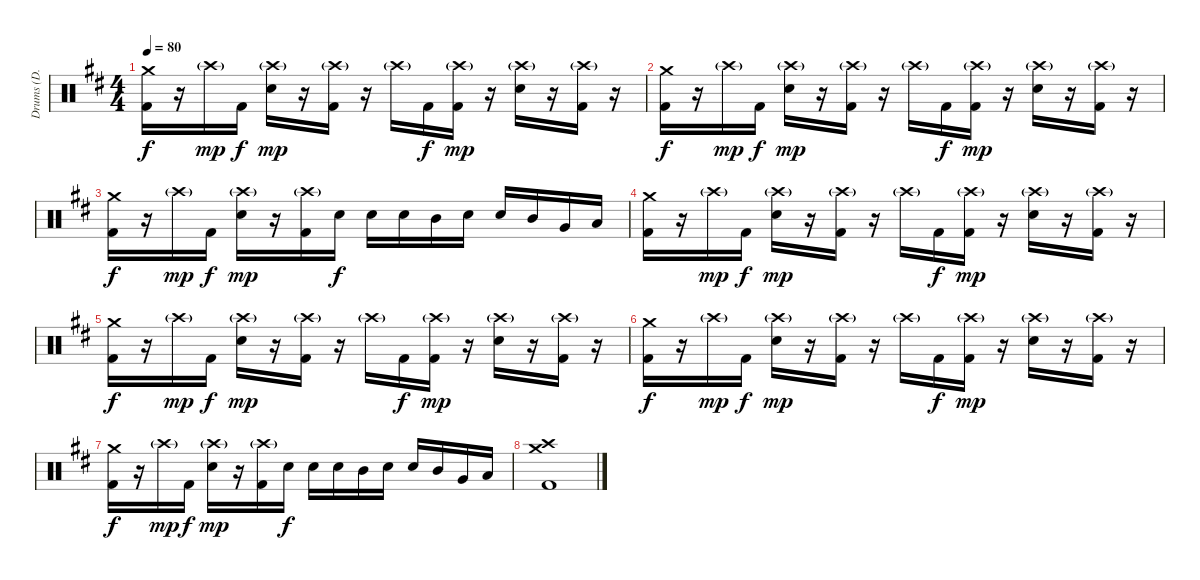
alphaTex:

\track ("Drums (D. Adair)" "Drums (D. ") {instrument percussion}
\staff {score}
\articulation defaults
\ts (4 4)
\tempo 80
\clef neutral
\ks d
("Crash medium (hit)" "Kick (hit) 2").16{dy f} r.16 "Crash high (hit)"{g}.16{dy mp} "Kick (hit) 2".16{dy f} ("Crash high (hit)"{g} "Snare (hit) 2").16{dy mp} r.16 ("Crash high (hit)"{g} "Kick (hit) 2").16 r.16 "Crash high (hit)"{g}.16 "Kick (hit) 2".16{dy f} ("Crash high (hit)"{g} "Kick (hit) 2").16{dy mp} r.16 ("Crash high (hit)"{g} "Snare (hit) 2").16 r.16 ("Crash high (hit)"{g} "Kick (hit) 2").16 r.16 |
("Crash medium (hit)" "Kick (hit) 2").16{dy f} r.16 "Crash high (hit)"{g}.16{dy mp} "Kick (hit) 2".16{dy f} ("Crash high (hit)"{g} "Snare (hit) 2").16{dy mp} r.16 ("Crash high (hit)"{g} "Kick (hit) 2").16 r.16 "Crash high (hit)"{g}.16 "Kick (hit) 2".16{dy f} ("Crash high (hit)"{g} "Kick (hit) 2").16{dy mp} r.16 ("Crash high (hit)"{g} "Snare (hit) 2").16 r.16 ("Crash high (hit)"{g} "Kick (hit) 2").16 r.16 |
("Crash medium (hit)" "Kick (hit) 2").16{dy f} r.16 "Crash high (hit)"{g}.16{dy mp} "Kick (hit) 2".16{dy f} ("Crash high (hit)"{g} "Snare (hit) 2").16{dy mp} r.16 ("Crash high (hit)"{g} "Kick (hit) 2").16 "Snare (hit) 2".16{dy f} "Snare (hit) 2".16 "Snare (hit) 2".16 "Mid Tom (hit)".16 "Snare (hit) 2".16 "Snare (hit) 2".16 "Mid Tom (hit)".16 "Very Low Tom (hit)".16 "Low Floor Tom (hit)".16 |
("Crash medium (hit)" "Kick (hit) 2").16 r.16 "Crash high (hit)"{g}.16{dy mp} "Kick (hit) 2".16{dy f} ("Crash high (hit)"{g} "Snare (hit) 2").16{dy mp} r.16 ("Crash high (hit)"{g} "Kick (hit) 2").16 r.16 "Crash high (hit)"{g}.16 "Kick (hit) 2".16{dy f} ("Crash high (hit)"{g} "Kick (hit) 2").16{dy mp} r.16 ("Crash high (hit)"{g} "Snare (hit) 2").16 r.16 ("Crash high (hit)"{g} "Kick (hit) 2").16 r.16 |
("Crash medium (hit)" "Kick (hit) 2").16{dy f} r.16 "Crash high (hit)"{g}.16{dy mp} "Kick (hit) 2".16{dy f} ("Crash high (hit)"{g} "Snare (hit) 2").16{dy mp} r.16 ("Crash high (hit)"{g} "Kick (hit) 2").16 r.16 "Crash high (hit)"{g}.16 "Kick (hit) 2".16{dy f} ("Crash high (hit)"{g} "Kick (hit) 2").16{dy mp} r.16 ("Crash high (hit)"{g} "Snare (hit) 2").16 r.16 ("Crash high (hit)"{g} "Kick (hit) 2").16 r.16 |
("Crash medium (hit)" "Kick (hit) 2").16{dy f} r.16 "Crash high (hit)"{g}.16{dy mp} "Kick (hit) 2".16{dy f} ("Crash high (hit)"{g} "Snare (hit) 2").16{dy mp} r.16 ("Crash high (hit)"{g} "Kick (hit) 2").16 r.16 "Crash high (hit)"{g}.16 "Kick (hit) 2".16{dy f} ("Crash high (hit)"{g} "Kick (hit) 2").16{dy mp} r.16 ("Crash high (hit)"{g} "Snare (hit) 2").16 r.16 ("Crash high (hit)"{g} "Kick (hit) 2").16 r.16 |
("Crash medium (hit)" "Kick (hit) 2").16{dy f} r.16 "Crash high (hit)"{g}.16{dy mp} "Kick (hit) 2".16{dy f} ("Crash high (hit)"{g} "Snare (hit) 2").16{dy mp} r.16 ("Crash high (hit)"{g} "Kick (hit) 2").16 "Snare (hit) 2".16{dy f} "Snare (hit) 2".16 "Snare (hit) 2".16 "Mid Tom (hit)".16 "Snare (hit) 2".16 "Snare (hit) 2".16 "Mid Tom (hit)".16 "Very Low Tom (hit)".16 "Low Floor Tom (hit)".16 |
("Crash high (hit)" "Crash medium (hit)" "Kick (hit) 2").1
